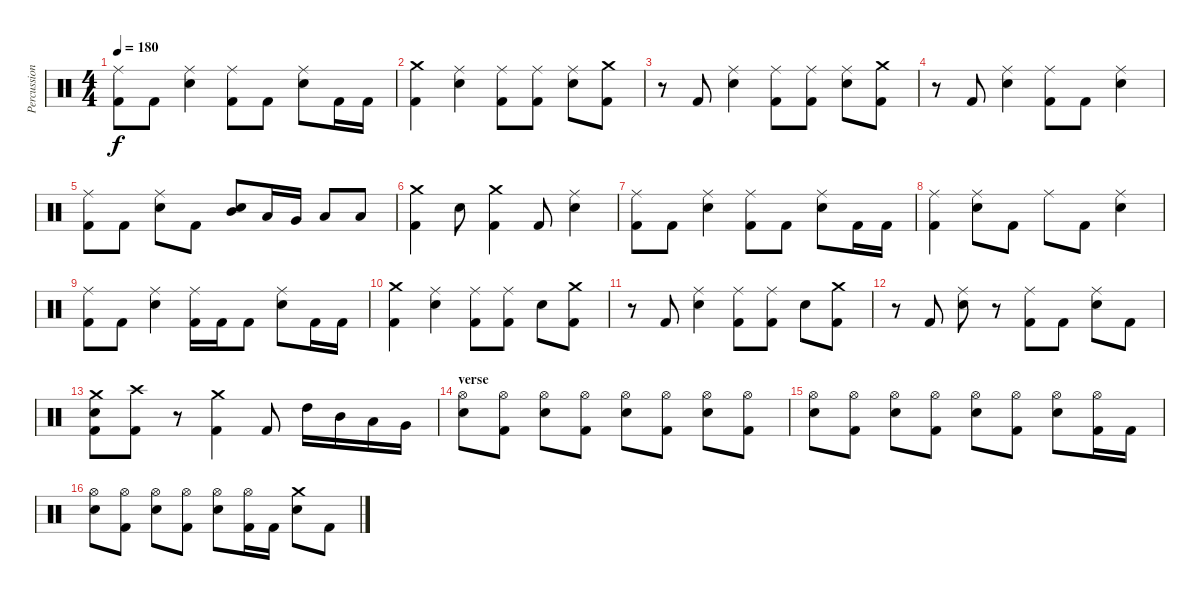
\track ("Percussion" "Percussion") {instrument percussion}
\staff {score}
\articulation defaults
\ts (4 4)
\tempo 180
\clef neutral
\ks c
("Ride (middle)" "Kick (hit) 2").8{dy f} "Kick (hit) 2".8 ("Ride (middle)" "Electric Snare (hit)").4 ("Ride (middle)" "Kick (hit) 2").8 "Kick (hit) 2".8 ("Ride (middle)" "Electric Snare (hit)").8 "Kick (hit) 2".16 "Kick (hit) 2".16 |
("Crash medium (hit)" "Kick (hit) 2").4 ("Ride (middle)" "Electric Snare (hit)").4 ("Ride (middle)" "Kick (hit) 2").8 ("Ride (middle)" "Kick (hit) 2").8 ("Ride (middle)" "Electric Snare (hit)").8 ("Crash medium (hit)" "Kick (hit) 2").8 |
r.8 "Kick (hit) 2".8 ("Ride (middle)" "Electric Snare (hit)").4 ("Ride (middle)" "Kick (hit) 2").8 ("Ride (middle)" "Kick (hit) 2").8 ("Ride (middle)" "Electric Snare (hit)").8 ("Crash medium (hit)" "Kick (hit) 2").8 |
r.8 "Kick (hit) 2".8 ("Ride (middle)" "Electric Snare (hit)").4 ("Ride (middle)" "Kick (hit) 2").8 "Kick (hit) 2".8 ("Ride (middle)" "Electric Snare (hit)").4 |
("Ride (middle)" "Kick (hit) 2").8 "Kick (hit) 2".8 ("Ride (middle)" "Electric Snare (hit)").8 "Kick (hit) 2".8 ("Mid Tom (hit)" "Electric Snare (hit)").8 "Low Tom (hit)".16 "Very Low Tom (hit)".16 "Low Floor Tom (hit)".8 "Low Floor Tom (hit)".8 |
("Crash medium (hit)" "Kick (hit) 2").4 "Electric Snare (hit)".8 ("Crash medium (hit)" "Kick (hit) 2").4 "Kick (hit) 2".8 ("Ride (middle)" "Electric Snare (hit)").4 |
("Ride (middle)" "Kick (hit) 2").8 "Kick (hit) 2".8 ("Ride (middle)" "Electric Snare (hit)").4 ("Ride (middle)" "Kick (hit) 2").8 "Kick (hit) 2".8 ("Ride (middle)" "Electric Snare (hit)").8 "Kick (hit) 2".16 "Kick (hit) 2".16 |
("Ride (middle)" "Kick (hit) 2").4 ("Ride (middle)" "Electric Snare (hit)").8 "Kick (hit) 2".8 "Ride (middle)".8 "Kick (hit) 2".8 ("Ride (middle)" "Electric Snare (hit)").4 |
("Ride (middle)" "Kick (hit) 2").8 "Kick (hit) 2".8 ("Ride (middle)" "Electric Snare (hit)").4 ("Ride (middle)" "Kick (hit) 2").16 "Kick (hit) 2".16 "Kick (hit) 2".8 ("Ride (middle)" "Electric Snare (hit)").8 "Kick (hit) 2".16 "Kick (hit) 2".16 |
("Crash medium (hit)" "Kick (hit) 2").4 ("Ride (middle)" "Electric Snare (hit)").4 ("Ride (middle)" "Kick (hit) 2").8 ("Ride (middle)" "Kick (hit) 2").8 "Electric Snare (hit)".8 ("Crash medium (hit)" "Kick (hit) 2").8 |
r.8 "Kick (hit) 2".8 ("Ride (middle)" "Electric Snare (hit)").4 ("Ride (middle)" "Kick (hit) 2").8 ("Ride (middle)" "Kick (hit) 2").8 "Electric Snare (hit)".8 ("Crash medium (hit)" "Kick (hit) 2").8 |
r.8 "Kick (hit) 2".8 ("Ride (middle)" "Electric Snare (hit)").8 r.8 ("Ride (middle)" "Kick (hit) 2").8 "Kick (hit) 2".8 ("Ride (middle)" "Electric Snare (hit)").8 "Kick (hit) 2".8 |
("Crash medium (hit)" "Electric Snare (hit)" "Kick (hit) 2").8 ("Crash high (hit)" "Kick (hit) 2").8 r.8 ("Crash medium (hit)" "Kick (hit) 2").4 "Kick (hit) 2".8 "High Tom (hit)".16 "Mid Tom (hit)".16 "Low Tom (hit)".16 "Very Low Tom (hit)".16 |
\section ("" "verse")
("Hi-Hat (open)" "Electric Snare (hit)").8 ("Hi-Hat (open)" "Kick (hit) 2").8 ("Hi-Hat (open)" "Electric Snare (hit)").8 ("Hi-Hat (open)" "Kick (hit) 2").8 ("Hi-Hat (open)" "Electric Snare (hit)").8 ("Hi-Hat (open)" "Kick (hit) 2").8 ("Hi-Hat (open)" "Electric Snare (hit)").8 ("Hi-Hat (open)" "Kick (hit) 2").8 |
("Hi-Hat (open)" "Electric Snare (hit)").8 ("Hi-Hat (open)" "Kick (hit) 2").8 ("Hi-Hat (open)" "Electric Snare (hit)").8 ("Hi-Hat (open)" "Kick (hit) 2").8 ("Hi-Hat (open)" "Electric Snare (hit)").8 ("Hi-Hat (open)" "Kick (hit) 2").8 ("Hi-Hat (open)" "Electric Snare (hit)").8 ("Hi-Hat (open)" "Kick (hit) 2").16 "Kick (hit) 2".16 |
("Hi-Hat (open)" "Electric Snare (hit)").8 ("Hi-Hat (open)" "Kick (hit) 2").8 ("Hi-Hat (open)" "Electric Snare (hit)").8 ("Hi-Hat (open)" "Kick (hit) 2").8 ("Hi-Hat (open)" "Electric Snare (hit)").8 ("Hi-Hat (open)" "Kick (hit) 2").16 "Kick (hit) 2".16 ("Crash medium (hit)" "Electric Snare (hit)").8 "Kick (hit) 2".8
